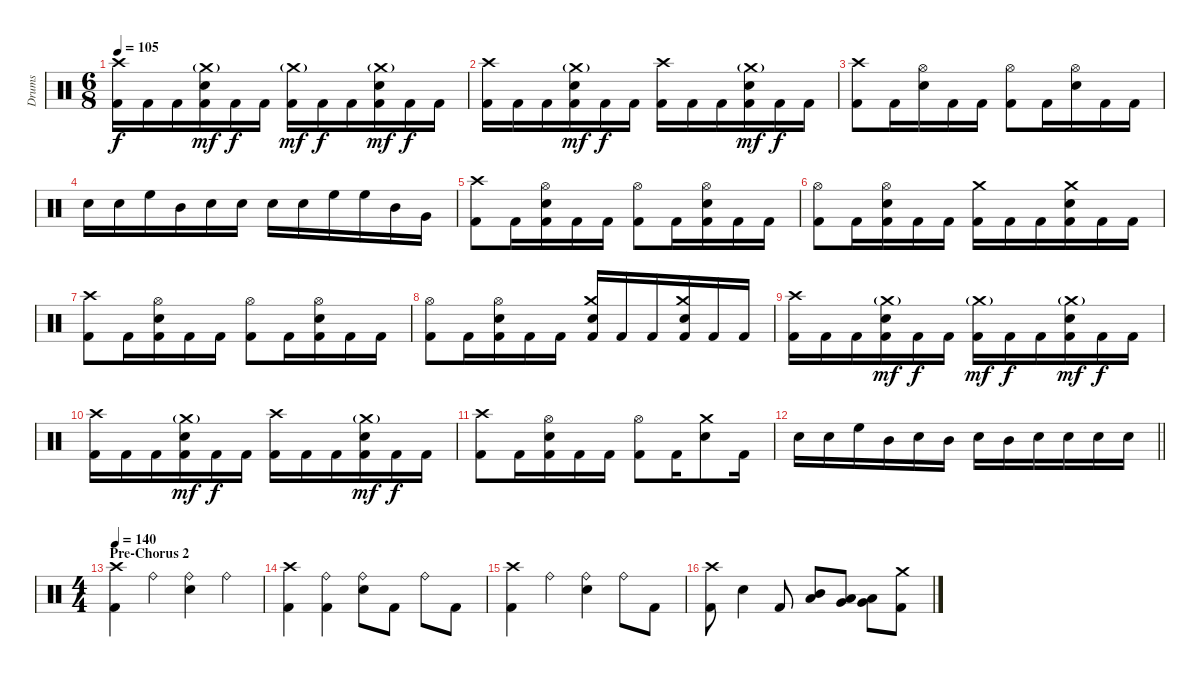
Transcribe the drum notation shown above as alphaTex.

\track ("Drums" "Drums") {instrument percussion}
\staff {score}
\articulation defaults
\ts (6 8)
\tempo 105
\clef neutral
\ks c
("Crash high (hit)" "Kick (hit) 2").16{dy f} "Kick (hit) 2".16 "Kick (hit) 2".16 ("Crash medium (hit)"{g} "Electric Snare (hit)" "Kick (hit) 2").16{dy mf} "Kick (hit) 2".16{dy f} "Kick (hit) 2".16 ("Crash medium (hit)"{g} "Kick (hit) 2").16{dy mf} "Kick (hit) 2".16{dy f} "Kick (hit) 2".16 ("Crash medium (hit)"{g} "Electric Snare (hit)" "Kick (hit) 2").16{dy mf} "Kick (hit) 2".16{dy f} "Kick (hit) 2".16 |
("Crash high (hit)" "Kick (hit) 2").16 "Kick (hit) 2".16 "Kick (hit) 2".16 ("Crash medium (hit)"{g} "Electric Snare (hit)" "Kick (hit) 2").16{dy mf} "Kick (hit) 2".16{dy f} "Kick (hit) 2".16 ("Crash high (hit)" "Kick (hit) 2").16 "Kick (hit) 2".16 "Kick (hit) 2".16 ("Crash medium (hit)"{g} "Electric Snare (hit)" "Kick (hit) 2").16{dy mf} "Kick (hit) 2".16{dy f} "Kick (hit) 2".16 |
("Crash high (hit)" "Kick (hit) 2").8 "Kick (hit) 2".16 ("Hi-Hat (open)" "Electric Snare (hit)").16 "Kick (hit) 2".16 "Kick (hit) 2".16 ("Hi-Hat (open)" "Kick (hit) 2").8 "Kick (hit) 2".16 ("Hi-Hat (open)" "Electric Snare (hit)").16 "Kick (hit) 2".16 "Kick (hit) 2".16 |
"Electric Snare (hit)".16 "Electric Snare (hit)".16 "High Floor Tom (hit)".16 "Mid Tom (hit)".16 "Electric Snare (hit)".16 "Electric Snare (hit)".16 "Electric Snare (hit)".16 "Electric Snare (hit)".16 "High Floor Tom (hit)".16 "High Floor Tom (hit)".16 "Mid Tom (hit)".16 "Very Low Tom (hit)".16 |
("Crash high (hit)" "Kick (hit) 2").8 "Kick (hit) 2".16 ("Hi-Hat (open)" "Electric Snare (hit)" "Kick (hit) 2").16 "Kick (hit) 2".16 "Kick (hit) 2".16 ("Hi-Hat (open)" "Kick (hit) 2").8 "Kick (hit) 2".16 ("Hi-Hat (open)" "Electric Snare (hit)" "Kick (hit) 2").16 "Kick (hit) 2".16 "Kick (hit) 2".16 |
("Hi-Hat (open)" "Kick (hit) 2").8 "Kick (hit) 2".16 ("Hi-Hat (open)" "Electric Snare (hit)" "Kick (hit) 2").16 "Kick (hit) 2".16 "Kick (hit) 2".16 ("Crash medium (hit)" "Kick (hit) 2").16 "Kick (hit) 2".16 "Kick (hit) 2".16 ("Crash medium (hit)" "Electric Snare (hit)" "Kick (hit) 2").16 "Kick (hit) 2".16 "Kick (hit) 2".16 |
("Crash high (hit)" "Kick (hit) 2").8 "Kick (hit) 2".16 ("Hi-Hat (open)" "Electric Snare (hit)" "Kick (hit) 2").16 "Kick (hit) 2".16 "Kick (hit) 2".16 ("Hi-Hat (open)" "Kick (hit) 2").8 "Kick (hit) 2".16 ("Hi-Hat (open)" "Electric Snare (hit)" "Kick (hit) 2").16 "Kick (hit) 2".16 "Kick (hit) 2".16 |
("Hi-Hat (open)" "Kick (hit) 2").8 "Kick (hit) 2".16 ("Hi-Hat (open)" "Electric Snare (hit)" "Kick (hit) 2").16 "Kick (hit) 2".16 "Kick (hit) 2".16 ("Crash medium (hit)" "Electric Snare (hit)" "Kick (hit) 2").16 "Kick (hit) 2".16 "Kick (hit) 2".16 ("Crash medium (hit)" "Electric Snare (hit)" "Kick (hit) 2").16 "Kick (hit) 2".16 "Kick (hit) 2".16 |
("Crash high (hit)" "Kick (hit) 2").16 "Kick (hit) 2".16 "Kick (hit) 2".16 ("Crash medium (hit)"{g} "Electric Snare (hit)" "Kick (hit) 2").16{dy mf} "Kick (hit) 2".16{dy f} "Kick (hit) 2".16 ("Crash medium (hit)"{g} "Kick (hit) 2").16{dy mf} "Kick (hit) 2".16{dy f} "Kick (hit) 2".16 ("Crash medium (hit)"{g} "Electric Snare (hit)" "Kick (hit) 2").16{dy mf} "Kick (hit) 2".16{dy f} "Kick (hit) 2".16 |
("Crash high (hit)" "Kick (hit) 2").16 "Kick (hit) 2".16 "Kick (hit) 2".16 ("Crash medium (hit)"{g} "Electric Snare (hit)" "Kick (hit) 2").16{dy mf} "Kick (hit) 2".16{dy f} "Kick (hit) 2".16 ("Crash high (hit)" "Kick (hit) 2").16 "Kick (hit) 2".16 "Kick (hit) 2".16 ("Crash medium (hit)"{g} "Electric Snare (hit)" "Kick (hit) 2").16{dy mf} "Kick (hit) 2".16{dy f} "Kick (hit) 2".16 |
("Crash high (hit)" "Kick (hit) 2").8 "Kick (hit) 2".16 ("Hi-Hat (open)" "Electric Snare (hit)" "Kick (hit) 2").16 "Kick (hit) 2".16 "Kick (hit) 2".16 ("Hi-Hat (open)" "Kick (hit) 2").8 "Kick (hit) 2".16 ("Crash medium (hit)" "Electric Snare (hit)").8 "Kick (hit) 2".16 |
\barLineRight lightlight "Electric Snare (hit)".16 "Electric Snare (hit)".16 "High Floor Tom (hit)".16 "Mid Tom (hit)".16 "Electric Snare (hit)".16 "Mid Tom (hit)".16 "Electric Snare (hit)".16 "Mid Tom (hit)".16 "Electric Snare (hit)".16 "Electric Snare (hit)".16 "Electric Snare (hit)".16 "Electric Snare (hit)".16
|
\ts (4 4)
\section ("" "Pre-Chorus 2")
\tempo 140
("Crash high (hit)" "Kick (hit) 2").4 "Ride (bell)".4 ("Ride (bell)" "Electric Snare (hit)").4 "Ride (bell)".4 |
("Crash high (hit)" "Kick (hit) 2").4 ("Ride (bell)" "Kick (hit) 2").4 ("Ride (bell)" "Electric Snare (hit)").8 "Kick (hit) 2".8 "Ride (bell)".8 "Kick (hit) 2".8 |
("Crash high (hit)" "Kick (hit) 2").4 "Ride (bell)".4 ("Ride (bell)" "Electric Snare (hit)").4 "Ride (bell)".8 "Kick (hit) 2".8 |
("Crash high (hit)" "Kick (hit) 2").8 "Electric Snare (hit)".4 "Kick (hit) 2".8 ("Mid Tom (hit)" "Low Tom (hit)").8 ("Low Tom (hit)" "Very Low Tom (hit)").8 ("Very Low Tom (hit)" "Low Floor Tom (hit)").8 ("Crash medium (hit)" "Kick (hit) 2").8
